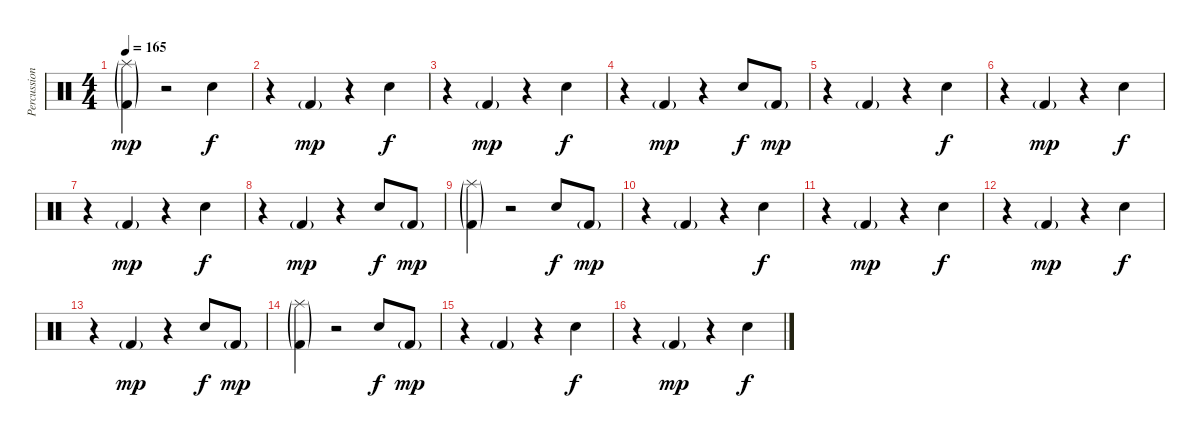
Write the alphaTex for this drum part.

\track ("Percussions" "Percussion") {instrument percussion}
\staff {score}
\articulation defaults
\ts (4 4)
\tempo 165
\clef neutral
\ks c
("Splash (hit)"{g} "Kick (hit) 2"{g}).4{dy mp} r.2 "Electric Snare (hit)".4{dy f} |
r.4 "Kick (hit) 2"{g}.4{dy mp} r.4 "Electric Snare (hit)".4{dy f} |
r.4 "Kick (hit) 2"{g}.4{dy mp} r.4 "Electric Snare (hit)".4{dy f} |
r.4 "Kick (hit) 2"{g}.4{dy mp} r.4 "Electric Snare (hit)".8{dy f} "Kick (hit) 2"{g}.8{dy mp} |
r.4 "Kick (hit) 2"{g}.4 r.4 "Electric Snare (hit)".4{dy f} |
r.4 "Kick (hit) 2"{g}.4{dy mp} r.4 "Electric Snare (hit)".4{dy f} |
r.4 "Kick (hit) 2"{g}.4{dy mp} r.4 "Electric Snare (hit)".4{dy f} |
r.4 "Kick (hit) 2"{g}.4{dy mp} r.4 "Electric Snare (hit)".8{dy f} "Kick (hit) 2"{g}.8{dy mp} |
("Splash (hit)"{g} "Kick (hit) 2"{g}).4 r.2 "Electric Snare (hit)".8{dy f} "Kick (hit) 2"{g}.8{dy mp} |
r.4 "Kick (hit) 2"{g}.4 r.4 "Electric Snare (hit)".4{dy f} |
r.4 "Kick (hit) 2"{g}.4{dy mp} r.4 "Electric Snare (hit)".4{dy f} |
r.4 "Kick (hit) 2"{g}.4{dy mp} r.4 "Electric Snare (hit)".4{dy f} |
r.4 "Kick (hit) 2"{g}.4{dy mp} r.4 "Electric Snare (hit)".8{dy f} "Kick (hit) 2"{g}.8{dy mp} |
("Splash (hit)"{g} "Kick (hit) 2"{g}).4 r.2 "Electric Snare (hit)".8{dy f} "Kick (hit) 2"{g}.8{dy mp} |
r.4 "Kick (hit) 2"{g}.4 r.4 "Electric Snare (hit)".4{dy f} |
r.4 "Kick (hit) 2"{g}.4{dy mp} r.4 "Electric Snare (hit)".4{dy f}
